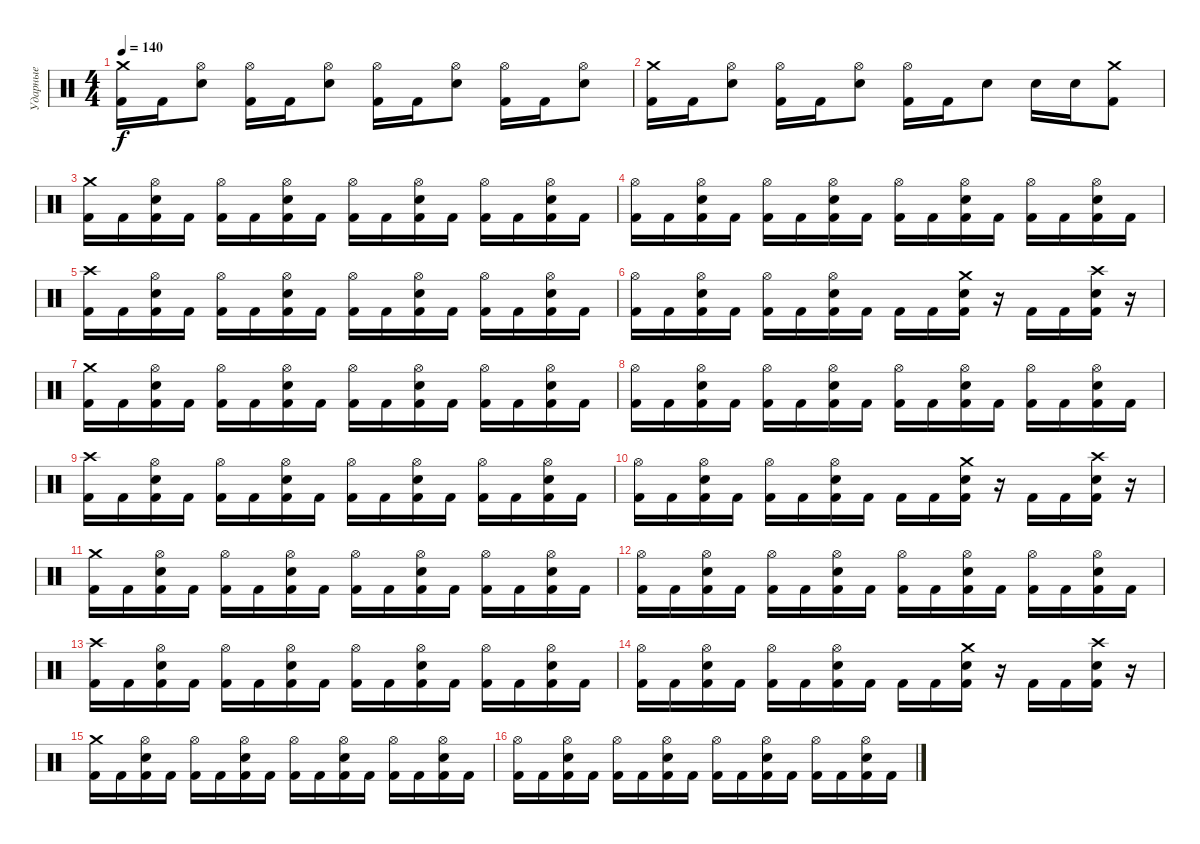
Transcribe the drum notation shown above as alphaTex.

\track ("Ударные" "Ударные") {instrument percussion}
\staff {score}
\articulation defaults
\ts (4 4)
\tempo 140
\clef neutral
\ks c
("Crash medium (hit)" "Kick (hit) 2").16{dy f} "Kick (hit) 2".16 ("Hi-Hat (open)" "Snare (hit) 2").8 ("Hi-Hat (open)" "Kick (hit) 2").16 "Kick (hit) 2".16 ("Hi-Hat (open)" "Snare (hit) 2").8 ("Hi-Hat (open)" "Kick (hit) 2").16 "Kick (hit) 2".16 ("Hi-Hat (open)" "Snare (hit) 2").8 ("Hi-Hat (open)" "Kick (hit) 2").16 "Kick (hit) 2".16 ("Hi-Hat (open)" "Snare (hit) 2").8 |
("Crash medium (hit)" "Kick (hit) 2").16 "Kick (hit) 2".16 ("Hi-Hat (open)" "Snare (hit) 2").8 ("Hi-Hat (open)" "Kick (hit) 2").16 "Kick (hit) 2".16 ("Hi-Hat (open)" "Snare (hit) 2").8 ("Hi-Hat (open)" "Kick (hit) 2").16 "Kick (hit) 2".16 "Snare (hit) 2".8 "Snare (hit) 2".16 "Snare (hit) 2".16 ("Crash medium (hit)" "Kick (hit) 2").8 |
("Crash medium (hit)" "Kick (hit) 2").16 "Kick (hit) 2".16 ("Hi-Hat (open)" "Snare (hit) 2" "Kick (hit) 2").16 "Kick (hit) 2".16 ("Hi-Hat (open)" "Kick (hit) 2").16 "Kick (hit) 2".16 ("Hi-Hat (open)" "Snare (hit) 2" "Kick (hit) 2").16 "Kick (hit) 2".16 ("Hi-Hat (open)" "Kick (hit) 2").16 "Kick (hit) 2".16 ("Hi-Hat (open)" "Snare (hit) 2" "Kick (hit) 2").16 "Kick (hit) 2".16 ("Hi-Hat (open)" "Kick (hit) 2").16 "Kick (hit) 2".16 ("Hi-Hat (open)" "Snare (hit) 2" "Kick (hit) 2").16 "Kick (hit) 2".16 |
("Hi-Hat (open)" "Kick (hit) 2").16 "Kick (hit) 2".16 ("Hi-Hat (open)" "Snare (hit) 2" "Kick (hit) 2").16 "Kick (hit) 2".16 ("Hi-Hat (open)" "Kick (hit) 2").16 "Kick (hit) 2".16 ("Hi-Hat (open)" "Snare (hit) 2" "Kick (hit) 2").16 "Kick (hit) 2".16 ("Hi-Hat (open)" "Kick (hit) 2").16 "Kick (hit) 2".16 ("Hi-Hat (open)" "Snare (hit) 2" "Kick (hit) 2").16 "Kick (hit) 2".16 ("Hi-Hat (open)" "Kick (hit) 2").16 "Kick (hit) 2".16 ("Hi-Hat (open)" "Snare (hit) 2" "Kick (hit) 2").16 "Kick (hit) 2".16 |
("Crash high (hit)" "Kick (hit) 2").16 "Kick (hit) 2".16 ("Hi-Hat (open)" "Snare (hit) 2" "Kick (hit) 2").16 "Kick (hit) 2".16 ("Hi-Hat (open)" "Kick (hit) 2").16 "Kick (hit) 2".16 ("Hi-Hat (open)" "Snare (hit) 2" "Kick (hit) 2").16 "Kick (hit) 2".16 ("Hi-Hat (open)" "Kick (hit) 2").16 "Kick (hit) 2".16 ("Hi-Hat (open)" "Snare (hit) 2" "Kick (hit) 2").16 "Kick (hit) 2".16 ("Hi-Hat (open)" "Kick (hit) 2").16 "Kick (hit) 2".16 ("Hi-Hat (open)" "Snare (hit) 2" "Kick (hit) 2").16 "Kick (hit) 2".16 |
("Hi-Hat (open)" "Kick (hit) 2").16 "Kick (hit) 2".16 ("Hi-Hat (open)" "Snare (hit) 2" "Kick (hit) 2").16 "Kick (hit) 2".16 ("Hi-Hat (open)" "Kick (hit) 2").16 "Kick (hit) 2".16 ("Hi-Hat (open)" "Snare (hit) 2" "Kick (hit) 2").16 "Kick (hit) 2".16 "Kick (hit) 2".16 "Kick (hit) 2".16 ("Crash medium (hit)" "Snare (hit) 2" "Kick (hit) 2").16 r.16 "Kick (hit) 2".16 "Kick (hit) 2".16 ("Crash high (hit)" "Snare (hit) 2" "Kick (hit) 2").16 r.16 |
("Crash medium (hit)" "Kick (hit) 2").16 "Kick (hit) 2".16 ("Hi-Hat (open)" "Snare (hit) 2" "Kick (hit) 2").16 "Kick (hit) 2".16 ("Hi-Hat (open)" "Kick (hit) 2").16 "Kick (hit) 2".16 ("Hi-Hat (open)" "Snare (hit) 2" "Kick (hit) 2").16 "Kick (hit) 2".16 ("Hi-Hat (open)" "Kick (hit) 2").16 "Kick (hit) 2".16 ("Hi-Hat (open)" "Snare (hit) 2" "Kick (hit) 2").16 "Kick (hit) 2".16 ("Hi-Hat (open)" "Kick (hit) 2").16 "Kick (hit) 2".16 ("Hi-Hat (open)" "Snare (hit) 2" "Kick (hit) 2").16 "Kick (hit) 2".16 |
("Hi-Hat (open)" "Kick (hit) 2").16 "Kick (hit) 2".16 ("Hi-Hat (open)" "Snare (hit) 2" "Kick (hit) 2").16 "Kick (hit) 2".16 ("Hi-Hat (open)" "Kick (hit) 2").16 "Kick (hit) 2".16 ("Hi-Hat (open)" "Snare (hit) 2" "Kick (hit) 2").16 "Kick (hit) 2".16 ("Hi-Hat (open)" "Kick (hit) 2").16 "Kick (hit) 2".16 ("Hi-Hat (open)" "Snare (hit) 2" "Kick (hit) 2").16 "Kick (hit) 2".16 ("Hi-Hat (open)" "Kick (hit) 2").16 "Kick (hit) 2".16 ("Hi-Hat (open)" "Snare (hit) 2" "Kick (hit) 2").16 "Kick (hit) 2".16 |
("Crash high (hit)" "Kick (hit) 2").16 "Kick (hit) 2".16 ("Hi-Hat (open)" "Snare (hit) 2" "Kick (hit) 2").16 "Kick (hit) 2".16 ("Hi-Hat (open)" "Kick (hit) 2").16 "Kick (hit) 2".16 ("Hi-Hat (open)" "Snare (hit) 2" "Kick (hit) 2").16 "Kick (hit) 2".16 ("Hi-Hat (open)" "Kick (hit) 2").16 "Kick (hit) 2".16 ("Hi-Hat (open)" "Snare (hit) 2" "Kick (hit) 2").16 "Kick (hit) 2".16 ("Hi-Hat (open)" "Kick (hit) 2").16 "Kick (hit) 2".16 ("Hi-Hat (open)" "Snare (hit) 2" "Kick (hit) 2").16 "Kick (hit) 2".16 |
("Hi-Hat (open)" "Kick (hit) 2").16 "Kick (hit) 2".16 ("Hi-Hat (open)" "Snare (hit) 2" "Kick (hit) 2").16 "Kick (hit) 2".16 ("Hi-Hat (open)" "Kick (hit) 2").16 "Kick (hit) 2".16 ("Hi-Hat (open)" "Snare (hit) 2" "Kick (hit) 2").16 "Kick (hit) 2".16 "Kick (hit) 2".16 "Kick (hit) 2".16 ("Crash medium (hit)" "Snare (hit) 2" "Kick (hit) 2").16 r.16 "Kick (hit) 2".16 "Kick (hit) 2".16 ("Crash high (hit)" "Snare (hit) 2" "Kick (hit) 2").16 r.16 |
("Crash medium (hit)" "Kick (hit) 2").16 "Kick (hit) 2".16 ("Hi-Hat (open)" "Snare (hit) 2" "Kick (hit) 2").16 "Kick (hit) 2".16 ("Hi-Hat (open)" "Kick (hit) 2").16 "Kick (hit) 2".16 ("Hi-Hat (open)" "Snare (hit) 2" "Kick (hit) 2").16 "Kick (hit) 2".16 ("Hi-Hat (open)" "Kick (hit) 2").16 "Kick (hit) 2".16 ("Hi-Hat (open)" "Snare (hit) 2" "Kick (hit) 2").16 "Kick (hit) 2".16 ("Hi-Hat (open)" "Kick (hit) 2").16 "Kick (hit) 2".16 ("Hi-Hat (open)" "Snare (hit) 2" "Kick (hit) 2").16 "Kick (hit) 2".16 |
("Hi-Hat (open)" "Kick (hit) 2").16 "Kick (hit) 2".16 ("Hi-Hat (open)" "Snare (hit) 2" "Kick (hit) 2").16 "Kick (hit) 2".16 ("Hi-Hat (open)" "Kick (hit) 2").16 "Kick (hit) 2".16 ("Hi-Hat (open)" "Snare (hit) 2" "Kick (hit) 2").16 "Kick (hit) 2".16 ("Hi-Hat (open)" "Kick (hit) 2").16 "Kick (hit) 2".16 ("Hi-Hat (open)" "Snare (hit) 2" "Kick (hit) 2").16 "Kick (hit) 2".16 ("Hi-Hat (open)" "Kick (hit) 2").16 "Kick (hit) 2".16 ("Hi-Hat (open)" "Snare (hit) 2" "Kick (hit) 2").16 "Kick (hit) 2".16 |
("Crash high (hit)" "Kick (hit) 2").16 "Kick (hit) 2".16 ("Hi-Hat (open)" "Snare (hit) 2" "Kick (hit) 2").16 "Kick (hit) 2".16 ("Hi-Hat (open)" "Kick (hit) 2").16 "Kick (hit) 2".16 ("Hi-Hat (open)" "Snare (hit) 2" "Kick (hit) 2").16 "Kick (hit) 2".16 ("Hi-Hat (open)" "Kick (hit) 2").16 "Kick (hit) 2".16 ("Hi-Hat (open)" "Snare (hit) 2" "Kick (hit) 2").16 "Kick (hit) 2".16 ("Hi-Hat (open)" "Kick (hit) 2").16 "Kick (hit) 2".16 ("Hi-Hat (open)" "Snare (hit) 2" "Kick (hit) 2").16 "Kick (hit) 2".16 |
("Hi-Hat (open)" "Kick (hit) 2").16 "Kick (hit) 2".16 ("Hi-Hat (open)" "Snare (hit) 2" "Kick (hit) 2").16 "Kick (hit) 2".16 ("Hi-Hat (open)" "Kick (hit) 2").16 "Kick (hit) 2".16 ("Hi-Hat (open)" "Snare (hit) 2" "Kick (hit) 2").16 "Kick (hit) 2".16 "Kick (hit) 2".16 "Kick (hit) 2".16 ("Crash medium (hit)" "Snare (hit) 2" "Kick (hit) 2").16 r.16 "Kick (hit) 2".16 "Kick (hit) 2".16 ("Crash high (hit)" "Snare (hit) 2" "Kick (hit) 2").16 r.16 |
("Crash medium (hit)" "Kick (hit) 2").16 "Kick (hit) 2".16 ("Hi-Hat (open)" "Snare (hit) 2" "Kick (hit) 2").16 "Kick (hit) 2".16 ("Hi-Hat (open)" "Kick (hit) 2").16 "Kick (hit) 2".16 ("Hi-Hat (open)" "Snare (hit) 2" "Kick (hit) 2").16 "Kick (hit) 2".16 ("Hi-Hat (open)" "Kick (hit) 2").16 "Kick (hit) 2".16 ("Hi-Hat (open)" "Snare (hit) 2" "Kick (hit) 2").16 "Kick (hit) 2".16 ("Hi-Hat (open)" "Kick (hit) 2").16 "Kick (hit) 2".16 ("Hi-Hat (open)" "Snare (hit) 2" "Kick (hit) 2").16 "Kick (hit) 2".16 |
("Hi-Hat (open)" "Kick (hit) 2").16 "Kick (hit) 2".16 ("Hi-Hat (open)" "Snare (hit) 2" "Kick (hit) 2").16 "Kick (hit) 2".16 ("Hi-Hat (open)" "Kick (hit) 2").16 "Kick (hit) 2".16 ("Hi-Hat (open)" "Snare (hit) 2" "Kick (hit) 2").16 "Kick (hit) 2".16 ("Hi-Hat (open)" "Kick (hit) 2").16 "Kick (hit) 2".16 ("Hi-Hat (open)" "Snare (hit) 2" "Kick (hit) 2").16 "Kick (hit) 2".16 ("Hi-Hat (open)" "Kick (hit) 2").16 "Kick (hit) 2".16 ("Hi-Hat (open)" "Snare (hit) 2" "Kick (hit) 2").16 "Kick (hit) 2".16
